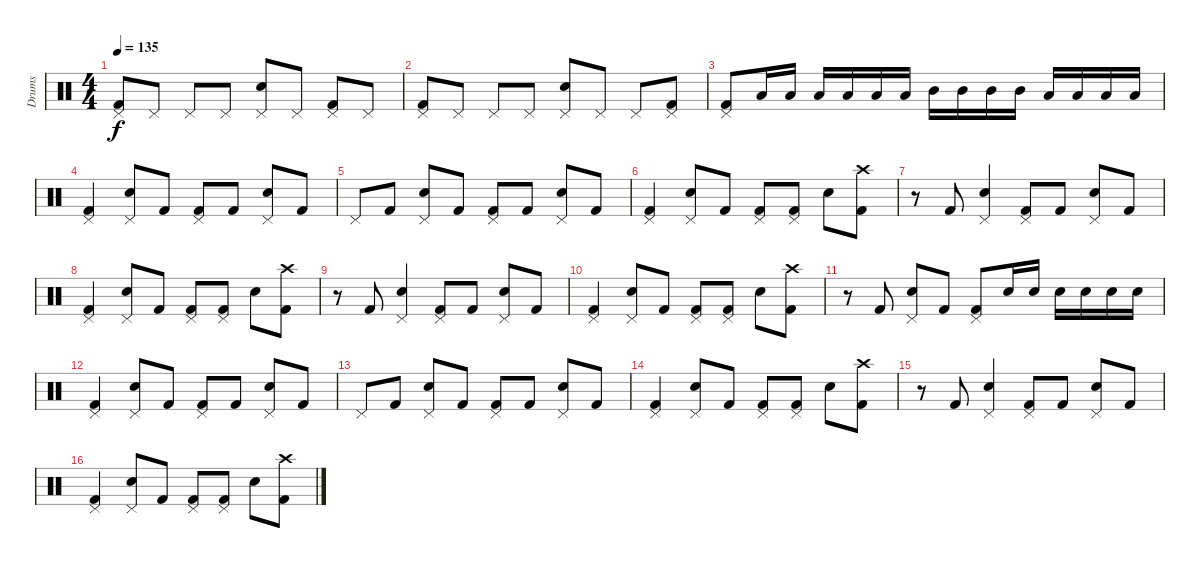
\track ("Drums" "Drums") {instrument percussion}
\staff {score}
\articulation defaults
\ts (4 4)
\tempo 135
\clef neutral
\ks c
("Pedal Hi-Hat (hit)" "Kick (hit) 2").8{dy f} "Pedal Hi-Hat (hit)".8 "Pedal Hi-Hat (hit)".8 "Pedal Hi-Hat (hit)".8 ("Pedal Hi-Hat (hit)" "Electric Snare (hit)").8 "Pedal Hi-Hat (hit)".8 ("Pedal Hi-Hat (hit)" "Kick (hit) 2").8 "Pedal Hi-Hat (hit)".8 |
("Pedal Hi-Hat (hit)" "Kick (hit) 2").8 "Pedal Hi-Hat (hit)".8 "Pedal Hi-Hat (hit)".8 "Pedal Hi-Hat (hit)".8 ("Pedal Hi-Hat (hit)" "Electric Snare (hit)").8 "Pedal Hi-Hat (hit)".8 "Pedal Hi-Hat (hit)".8 ("Pedal Hi-Hat (hit)" "Kick (hit) 2").8 |
("Pedal Hi-Hat (hit)" "Kick (hit) 2").8 "Low Tom (hit)".16 "Low Tom (hit)".16 "Low Tom (hit)".16 "Low Tom (hit)".16 "Low Tom (hit)".16 "Low Tom (hit)".16 "Mid Tom (hit)".16 "Mid Tom (hit)".16 "Mid Tom (hit)".16 "Mid Tom (hit)".16 "Low Floor Tom (hit)".16 "Low Floor Tom (hit)".16 "Low Floor Tom (hit)".16 "Low Floor Tom (hit)".16 |
("Pedal Hi-Hat (hit)" "Kick (hit) 2").4 ("Pedal Hi-Hat (hit)" "Electric Snare (hit)").8 "Kick (hit) 2".8 ("Pedal Hi-Hat (hit)" "Kick (hit) 2").8 "Kick (hit) 2".8 ("Pedal Hi-Hat (hit)" "Electric Snare (hit)").8 "Kick (hit) 2".8 |
"Pedal Hi-Hat (hit)".8 "Kick (hit) 2".8 ("Pedal Hi-Hat (hit)" "Electric Snare (hit)").8 "Kick (hit) 2".8 ("Pedal Hi-Hat (hit)" "Kick (hit) 2").8 "Kick (hit) 2".8 ("Pedal Hi-Hat (hit)" "Electric Snare (hit)").8 "Kick (hit) 2".8 |
("Pedal Hi-Hat (hit)" "Kick (hit) 2").4 ("Pedal Hi-Hat (hit)" "Electric Snare (hit)").8 "Kick (hit) 2".8 ("Pedal Hi-Hat (hit)" "Kick (hit) 2").8 ("Pedal Hi-Hat (hit)" "Kick (hit) 2").8 "Electric Snare (hit)".8 ("Crash high (hit)" "Kick (hit) 2").8 |
r.8 "Kick (hit) 2".8 ("Pedal Hi-Hat (hit)" "Electric Snare (hit)").4 ("Pedal Hi-Hat (hit)" "Kick (hit) 2").8 "Kick (hit) 2".8 ("Pedal Hi-Hat (hit)" "Electric Snare (hit)").8 "Kick (hit) 2".8 |
("Pedal Hi-Hat (hit)" "Kick (hit) 2").4 ("Pedal Hi-Hat (hit)" "Electric Snare (hit)").8 "Kick (hit) 2".8 ("Pedal Hi-Hat (hit)" "Kick (hit) 2").8 ("Pedal Hi-Hat (hit)" "Kick (hit) 2").8 "Electric Snare (hit)".8 ("Crash high (hit)" "Kick (hit) 2").8 |
r.8 "Kick (hit) 2".8 ("Pedal Hi-Hat (hit)" "Electric Snare (hit)").4 ("Pedal Hi-Hat (hit)" "Kick (hit) 2").8 "Kick (hit) 2".8 ("Pedal Hi-Hat (hit)" "Electric Snare (hit)").8 "Kick (hit) 2".8 |
("Pedal Hi-Hat (hit)" "Kick (hit) 2").4 ("Pedal Hi-Hat (hit)" "Electric Snare (hit)").8 "Kick (hit) 2".8 ("Pedal Hi-Hat (hit)" "Kick (hit) 2").8 ("Pedal Hi-Hat (hit)" "Kick (hit) 2").8 "Electric Snare (hit)".8 ("Crash high (hit)" "Kick (hit) 2").8 |
r.8 "Kick (hit) 2".8 ("Pedal Hi-Hat (hit)" "Electric Snare (hit)").8 "Kick (hit) 2".8 ("Pedal Hi-Hat (hit)" "Kick (hit) 2").8 "Electric Snare (hit)".16 "Electric Snare (hit)".16 "Electric Snare (hit)".16 "Electric Snare (hit)".16 "Electric Snare (hit)".16 "Electric Snare (hit)".16 |
("Pedal Hi-Hat (hit)" "Kick (hit) 2").4 ("Pedal Hi-Hat (hit)" "Electric Snare (hit)").8 "Kick (hit) 2".8 ("Pedal Hi-Hat (hit)" "Kick (hit) 2").8 "Kick (hit) 2".8 ("Pedal Hi-Hat (hit)" "Electric Snare (hit)").8 "Kick (hit) 2".8 |
"Pedal Hi-Hat (hit)".8 "Kick (hit) 2".8 ("Pedal Hi-Hat (hit)" "Electric Snare (hit)").8 "Kick (hit) 2".8 ("Pedal Hi-Hat (hit)" "Kick (hit) 2").8 "Kick (hit) 2".8 ("Pedal Hi-Hat (hit)" "Electric Snare (hit)").8 "Kick (hit) 2".8 |
("Pedal Hi-Hat (hit)" "Kick (hit) 2").4 ("Pedal Hi-Hat (hit)" "Electric Snare (hit)").8 "Kick (hit) 2".8 ("Pedal Hi-Hat (hit)" "Kick (hit) 2").8 ("Pedal Hi-Hat (hit)" "Kick (hit) 2").8 "Electric Snare (hit)".8 ("Crash high (hit)" "Kick (hit) 2").8 |
r.8 "Kick (hit) 2".8 ("Pedal Hi-Hat (hit)" "Electric Snare (hit)").4 ("Pedal Hi-Hat (hit)" "Kick (hit) 2").8 "Kick (hit) 2".8 ("Pedal Hi-Hat (hit)" "Electric Snare (hit)").8 "Kick (hit) 2".8 |
("Pedal Hi-Hat (hit)" "Kick (hit) 2").4 ("Pedal Hi-Hat (hit)" "Electric Snare (hit)").8 "Kick (hit) 2".8 ("Pedal Hi-Hat (hit)" "Kick (hit) 2").8 ("Pedal Hi-Hat (hit)" "Kick (hit) 2").8 "Electric Snare (hit)".8 ("Crash high (hit)" "Kick (hit) 2").8
